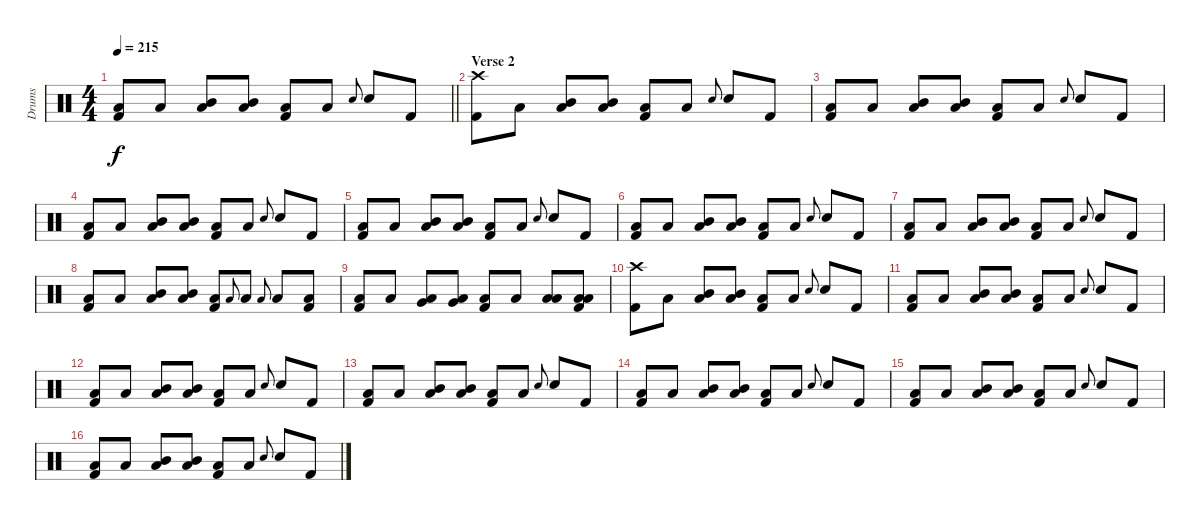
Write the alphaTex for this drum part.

\track ("Drums" "Drums") {instrument percussion}
\staff {score}
\articulation defaults
\ts (4 4)
\tempo 215
\clef neutral
\barLineRight lightlight
\ks c
("Low Tom (hit)" "Kick (hit) 2").8{dy f} "Low Tom (hit)".8 ("Mid Tom (hit)" "Low Tom (hit)").8 ("Mid Tom (hit)" "Low Tom (hit)").8 ("Low Tom (hit)" "Kick (hit) 2").8 "Low Tom (hit)".8 "Snare (hit) 2".8{gr onbeat} "Snare (hit) 2".8 "Kick (hit) 2".8 |
\section ("" "Verse 2")
("Crash high (hit)" "Kick (hit) 2").8 "Low Tom (hit)".8 ("Mid Tom (hit)" "Low Tom (hit)").8 ("Mid Tom (hit)" "Low Tom (hit)").8 ("Low Tom (hit)" "Kick (hit) 2").8 "Low Tom (hit)".8 "Snare (hit) 2".8{gr onbeat} "Snare (hit) 2".8 "Kick (hit) 2".8 |
("Low Tom (hit)" "Kick (hit) 2").8 "Low Tom (hit)".8 ("Mid Tom (hit)" "Low Tom (hit)").8 ("Mid Tom (hit)" "Low Tom (hit)").8 ("Low Tom (hit)" "Kick (hit) 2").8 "Low Tom (hit)".8 "Snare (hit) 2".8{gr onbeat} "Snare (hit) 2".8 "Kick (hit) 2".8 |
("Low Tom (hit)" "Kick (hit) 2").8 "Low Tom (hit)".8 ("Mid Tom (hit)" "Low Tom (hit)").8 ("Mid Tom (hit)" "Low Tom (hit)").8 ("Low Tom (hit)" "Kick (hit) 2").8 "Low Tom (hit)".8 "Snare (hit) 2".8{gr onbeat} "Snare (hit) 2".8 "Kick (hit) 2".8 |
("Low Tom (hit)" "Kick (hit) 2").8 "Low Tom (hit)".8 ("Mid Tom (hit)" "Low Tom (hit)").8 ("Mid Tom (hit)" "Low Tom (hit)").8 ("Low Tom (hit)" "Kick (hit) 2").8 "Low Tom (hit)".8 "Snare (hit) 2".8{gr onbeat} "Snare (hit) 2".8 "Kick (hit) 2".8 |
("Low Tom (hit)" "Kick (hit) 2").8 "Low Tom (hit)".8 ("Mid Tom (hit)" "Low Tom (hit)").8 ("Mid Tom (hit)" "Low Tom (hit)").8 ("Low Tom (hit)" "Kick (hit) 2").8 "Low Tom (hit)".8 "Snare (hit) 2".8{gr onbeat} "Snare (hit) 2".8 "Kick (hit) 2".8 |
("Low Tom (hit)" "Kick (hit) 2").8 "Low Tom (hit)".8 ("Mid Tom (hit)" "Low Tom (hit)").8 ("Mid Tom (hit)" "Low Tom (hit)").8 ("Low Tom (hit)" "Kick (hit) 2").8 "Low Tom (hit)".8 "Snare (hit) 2".8{gr onbeat} "Snare (hit) 2".8 "Kick (hit) 2".8 |
("Low Tom (hit)" "Kick (hit) 2").8 "Low Tom (hit)".8 ("Mid Tom (hit)" "Low Tom (hit)").8 ("Mid Tom (hit)" "Low Tom (hit)").8 ("Low Tom (hit)" "Kick (hit) 2").8 "Low Tom (hit)".8{gr onbeat} "Low Tom (hit)".8 "Low Tom (hit)".8{gr onbeat} "Low Tom (hit)".8 ("Low Tom (hit)" "Kick (hit) 2").8 |
("Low Tom (hit)" "Kick (hit) 2").8 "Low Tom (hit)".8 ("Very Low Tom (hit)" "Low Tom (hit)").8 ("Very Low Tom (hit)" "Low Tom (hit)").8 ("Low Tom (hit)" "Kick (hit) 2").8 "Low Tom (hit)".8 ("Low Floor Tom (hit)" "Low Tom (hit)").8 ("Low Floor Tom (hit)" "Low Tom (hit)" "Kick (hit) 2").8 |
("Crash high (hit)" "Kick (hit) 2").8 "Low Tom (hit)".8 ("Mid Tom (hit)" "Low Tom (hit)").8 ("Mid Tom (hit)" "Low Tom (hit)").8 ("Low Tom (hit)" "Kick (hit) 2").8 "Low Tom (hit)".8 "Snare (hit) 2".8{gr onbeat} "Snare (hit) 2".8 "Kick (hit) 2".8 |
("Low Tom (hit)" "Kick (hit) 2").8 "Low Tom (hit)".8 ("Mid Tom (hit)" "Low Tom (hit)").8 ("Mid Tom (hit)" "Low Tom (hit)").8 ("Low Tom (hit)" "Kick (hit) 2").8 "Low Tom (hit)".8 "Snare (hit) 2".8{gr onbeat} "Snare (hit) 2".8 "Kick (hit) 2".8 |
("Low Tom (hit)" "Kick (hit) 2").8 "Low Tom (hit)".8 ("Mid Tom (hit)" "Low Tom (hit)").8 ("Mid Tom (hit)" "Low Tom (hit)").8 ("Low Tom (hit)" "Kick (hit) 2").8 "Low Tom (hit)".8 "Snare (hit) 2".8{gr onbeat} "Snare (hit) 2".8 "Kick (hit) 2".8 |
("Low Tom (hit)" "Kick (hit) 2").8 "Low Tom (hit)".8 ("Mid Tom (hit)" "Low Tom (hit)").8 ("Mid Tom (hit)" "Low Tom (hit)").8 ("Low Tom (hit)" "Kick (hit) 2").8 "Low Tom (hit)".8 "Snare (hit) 2".8{gr onbeat} "Snare (hit) 2".8 "Kick (hit) 2".8 |
("Low Tom (hit)" "Kick (hit) 2").8 "Low Tom (hit)".8 ("Mid Tom (hit)" "Low Tom (hit)").8 ("Mid Tom (hit)" "Low Tom (hit)").8 ("Low Tom (hit)" "Kick (hit) 2").8 "Low Tom (hit)".8 "Snare (hit) 2".8{gr onbeat} "Snare (hit) 2".8 "Kick (hit) 2".8 |
("Low Tom (hit)" "Kick (hit) 2").8 "Low Tom (hit)".8 ("Mid Tom (hit)" "Low Tom (hit)").8 ("Mid Tom (hit)" "Low Tom (hit)").8 ("Low Tom (hit)" "Kick (hit) 2").8 "Low Tom (hit)".8 "Snare (hit) 2".8{gr onbeat} "Snare (hit) 2".8 "Kick (hit) 2".8 |
("Low Tom (hit)" "Kick (hit) 2").8 "Low Tom (hit)".8 ("Mid Tom (hit)" "Low Tom (hit)").8 ("Mid Tom (hit)" "Low Tom (hit)").8 ("Low Tom (hit)" "Kick (hit) 2").8 "Low Tom (hit)".8 "Snare (hit) 2".8{gr onbeat} "Snare (hit) 2".8 "Kick (hit) 2".8
